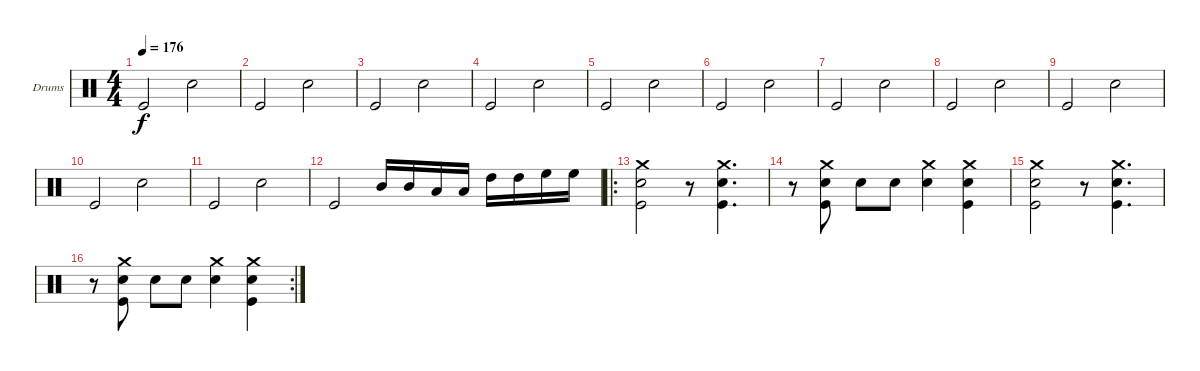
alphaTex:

\bracketExtendMode groupsimilarinstruments
\firstSystemTrackNameOrientation horizontal
\otherSystemsTrackNameOrientation horizontal
\track ("Drumkit" "Drums") {instrument percussion}
\staff {score}
\articulation defaults
\ts (4 4)
\tempo 176
\clef neutral
\ks c "Kick (hit)".2{dy f} "Snare (hit) 2".2
|
"Kick (hit)".2 "Snare (hit) 2".2 |
"Kick (hit)".2 "Snare (hit) 2".2 |
"Kick (hit)".2 "Snare (hit) 2".2 |
"Kick (hit)".2 "Snare (hit) 2".2 |
"Kick (hit)".2 "Snare (hit) 2".2 |
"Kick (hit)".2 "Snare (hit) 2".2 |
"Kick (hit)".2 "Snare (hit) 2".2 |
"Kick (hit)".2 "Snare (hit) 2".2 |
"Kick (hit)".2 "Snare (hit) 2".2 |
"Kick (hit)".2 "Snare (hit) 2".2 |
"Kick (hit)".2 "Mid Tom (hit)".16 "Mid Tom (hit)".16 "Low Tom (hit)".16 "Low Tom (hit)".16 "High Tom (hit)".16 "High Tom (hit)".16 "High Floor Tom (hit)".16 "High Floor Tom (hit)".16 |
\ro
("Crash medium (hit)" "Snare (hit) 2" "Kick (hit)").2 r.8 ("Crash medium (hit)" "Snare (hit) 2" "Kick (hit)").4{d} |
r.8 ("Crash medium (hit)" "Snare (hit) 2" "Kick (hit)").8 "Snare (hit) 2".8 "Snare (hit) 2".8 ("Crash medium (hit)" "Snare (hit) 2").4 ("Crash medium (hit)" "Snare (hit) 2" "Kick (hit)").4 |
("Crash medium (hit)" "Snare (hit) 2" "Kick (hit)").2 r.8 ("Crash medium (hit)" "Snare (hit) 2" "Kick (hit)").4{d} |
\rc 2
r.8 ("Crash medium (hit)" "Snare (hit) 2" "Kick (hit)").8 "Snare (hit) 2".8 "Snare (hit) 2".8 ("Crash medium (hit)" "Snare (hit) 2").4 ("Crash medium (hit)" "Snare (hit) 2" "Kick (hit)").4
